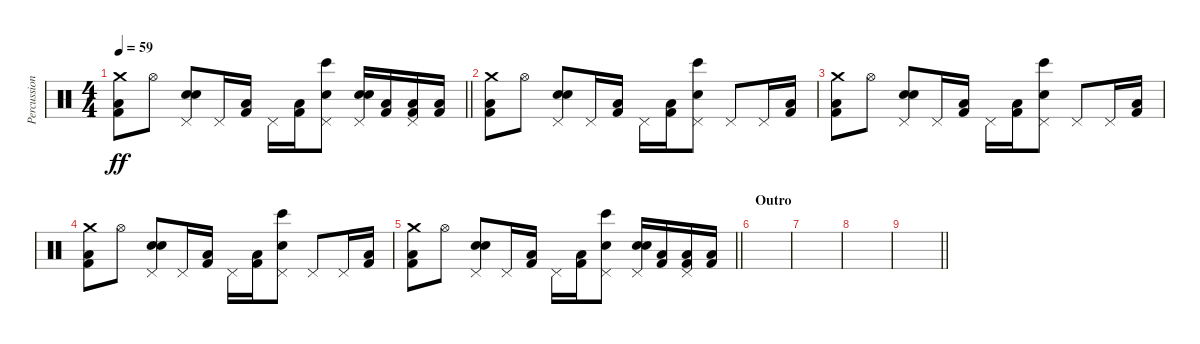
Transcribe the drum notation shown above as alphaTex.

\track ("Percussion" "Percussion") {instrument percussion}
\staff {score}
\articulation defaults
\ts (4 4)
\tempo 59
\clef neutral
\barLineRight lightlight
\ks c
("Crash medium (hit)" "Low Floor Tom (hit)" "Kick (hit) 2").8{dy ff} "Hi-Hat (open)".8 ("Pedal Hi-Hat (hit)" "Snare (hit) 2" "Electric Snare (hit)").8 "Pedal Hi-Hat (hit)".16 ("Low Floor Tom (hit)" "Kick (hit) 2").16 "Pedal Hi-Hat (hit)".16 ("Low Floor Tom (hit)" "Kick (hit) 2").16 ("Pedal Hi-Hat (hit)" "Snare (hit) 2" "Bongo High (hit)").8 ("Pedal Hi-Hat (hit)" "Snare (hit) 2" "Electric Snare (hit)").16 ("Low Floor Tom (hit)" "Kick (hit) 2").16 ("Pedal Hi-Hat (hit)" "Low Floor Tom (hit)" "Kick (hit) 2").16 ("Low Floor Tom (hit)" "Kick (hit) 2").16 |
("Crash medium (hit)" "Low Floor Tom (hit)" "Kick (hit) 2").8 "Hi-Hat (open)".8 ("Pedal Hi-Hat (hit)" "Snare (hit) 2" "Electric Snare (hit)").8 "Pedal Hi-Hat (hit)".16 ("Low Floor Tom (hit)" "Kick (hit) 2").16 "Pedal Hi-Hat (hit)".16 ("Low Floor Tom (hit)" "Kick (hit) 2").16 ("Pedal Hi-Hat (hit)" "Snare (hit) 2" "Bongo High (hit)").8 "Pedal Hi-Hat (hit)".8 "Pedal Hi-Hat (hit)".16 ("Low Floor Tom (hit)" "Kick (hit) 2").16 |
("Crash medium (hit)" "Low Floor Tom (hit)" "Kick (hit) 2").8 "Hi-Hat (open)".8 ("Pedal Hi-Hat (hit)" "Snare (hit) 2" "Electric Snare (hit)").8 "Pedal Hi-Hat (hit)".16 ("Low Floor Tom (hit)" "Kick (hit) 2").16 "Pedal Hi-Hat (hit)".16 ("Low Floor Tom (hit)" "Kick (hit) 2").16 ("Pedal Hi-Hat (hit)" "Snare (hit) 2" "Bongo High (hit)").8 "Pedal Hi-Hat (hit)".8 "Pedal Hi-Hat (hit)".16 ("Low Floor Tom (hit)" "Kick (hit) 2").16 |
("Crash medium (hit)" "Low Floor Tom (hit)" "Kick (hit) 2").8 "Hi-Hat (open)".8 ("Pedal Hi-Hat (hit)" "Snare (hit) 2" "Electric Snare (hit)").8 "Pedal Hi-Hat (hit)".16 ("Low Floor Tom (hit)" "Kick (hit) 2").16 "Pedal Hi-Hat (hit)".16 ("Low Floor Tom (hit)" "Kick (hit) 2").16 ("Pedal Hi-Hat (hit)" "Snare (hit) 2" "Bongo High (hit)").8 "Pedal Hi-Hat (hit)".8 "Pedal Hi-Hat (hit)".16 ("Low Floor Tom (hit)" "Kick (hit) 2").16 |
\barLineRight lightlight
("Crash medium (hit)" "Low Floor Tom (hit)" "Kick (hit) 2").8 "Hi-Hat (open)".8 ("Pedal Hi-Hat (hit)" "Snare (hit) 2" "Electric Snare (hit)").8 "Pedal Hi-Hat (hit)".16 ("Low Floor Tom (hit)" "Kick (hit) 2").16 "Pedal Hi-Hat (hit)".16 ("Low Floor Tom (hit)" "Kick (hit) 2").16 ("Pedal Hi-Hat (hit)" "Snare (hit) 2" "Bongo High (hit)").8 ("Pedal Hi-Hat (hit)" "Snare (hit) 2" "Electric Snare (hit)").16 ("Low Floor Tom (hit)" "Kick (hit) 2").16 ("Pedal Hi-Hat (hit)" "Low Floor Tom (hit)" "Kick (hit) 2").16 ("Low Floor Tom (hit)" "Kick (hit) 2").16 |
\section ("" "Outro")
|
|
|
\barLineRight lightlight
